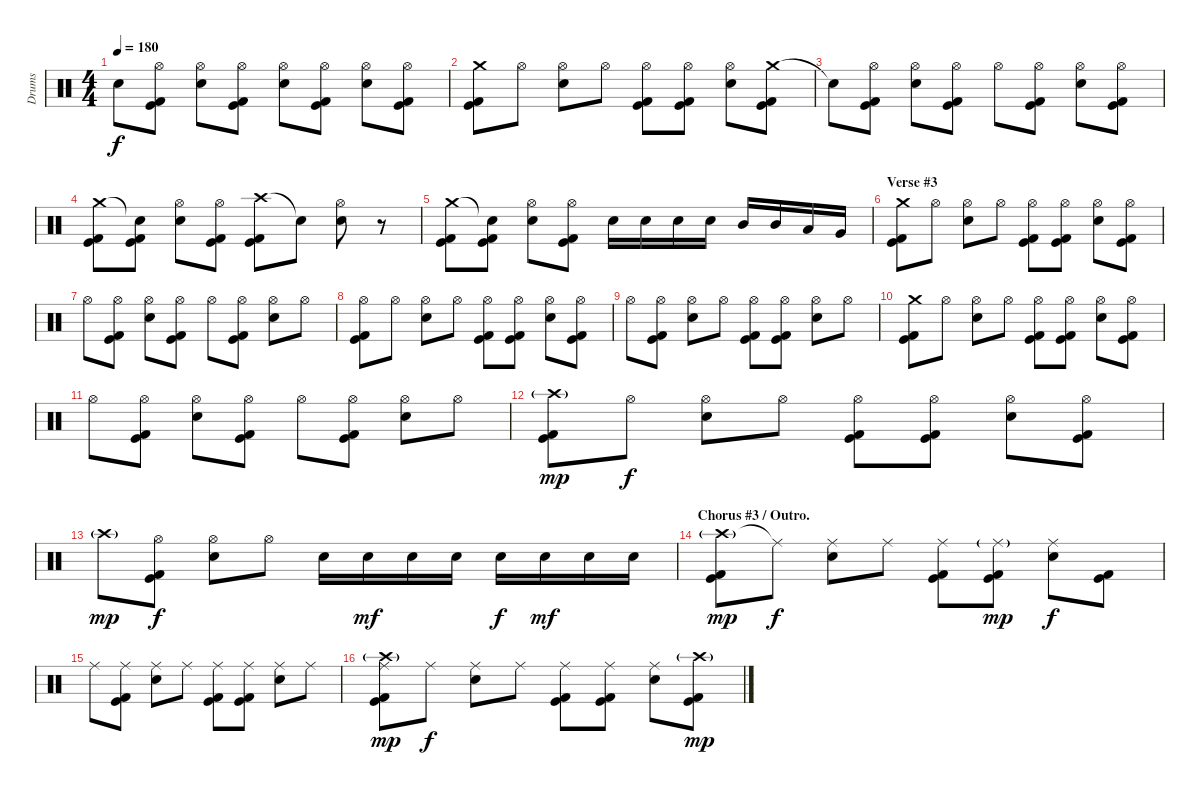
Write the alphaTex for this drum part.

\track ("Drums" "Drums") {instrument percussion}
\staff {score}
\articulation defaults
\ts (4 4)
\tempo 180
\clef neutral
\ks c "Snare (hit)"{t}.8{dy f}
("Hi-Hat (open)" "Kick (hit) 2" "Kick (hit)").8 ("Hi-Hat (open)" "Electric Snare (hit)").8 ("Hi-Hat (open)" "Kick (hit) 2" "Kick (hit)").8 ("Hi-Hat (open)" "Electric Snare (hit)").8 ("Hi-Hat (open)" "Kick (hit) 2" "Kick (hit)").8 ("Hi-Hat (open)" "Electric Snare (hit)").8 ("Hi-Hat (open)" "Kick (hit) 2" "Kick (hit)").8 |
("Crash medium (hit)" "Kick (hit) 2" "Kick (hit)").8 "Hi-Hat (open)".8 ("Hi-Hat (open)" "Electric Snare (hit)").8 "Hi-Hat (open)".8 ("Hi-Hat (open)" "Kick (hit) 2" "Kick (hit)").8 ("Hi-Hat (open)" "Kick (hit) 2" "Kick (hit)").8 ("Hi-Hat (open)" "Electric Snare (hit)").8 ("Crash medium (hit)" "Kick (hit) 2" "Kick (hit)").8 |
"Snare (hit)"{t}.8 ("Hi-Hat (open)" "Kick (hit) 2" "Kick (hit)").8 ("Hi-Hat (open)" "Electric Snare (hit)").8 ("Hi-Hat (open)" "Kick (hit) 2" "Kick (hit)").8 "Hi-Hat (open)".8 ("Hi-Hat (open)" "Kick (hit) 2" "Kick (hit)").8 ("Hi-Hat (open)" "Electric Snare (hit)").8 ("Hi-Hat (open)" "Kick (hit) 2" "Kick (hit)").8 |
("Crash medium (hit)" "Kick (hit) 2" "Kick (hit)").8 ("Snare (hit)"{t} "Kick (hit) 2" "Kick (hit)").8 ("Hi-Hat (open)" "Electric Snare (hit)").8 ("Hi-Hat (open)" "Kick (hit) 2" "Kick (hit)").8 ("Crash high (hit)" "Kick (hit) 2" "Kick (hit)").8 "Snare (hit)"{t}.8 ("Hi-Hat (open)" "Electric Snare (hit)").8 r.8 |
("Crash medium (hit)" "Kick (hit) 2" "Kick (hit)").8 ("Snare (hit)"{t} "Kick (hit) 2" "Kick (hit)").8 ("Hi-Hat (open)" "Electric Snare (hit)").8 ("Hi-Hat (open)" "Kick (hit) 2" "Kick (hit)").8 "Electric Snare (hit)".16 "Electric Snare (hit)".16 "Electric Snare (hit)".16 "Electric Snare (hit)".16 "Mid Tom (hit)".16 "Mid Tom (hit)".16 "Low Tom (hit)".16 "Very Low Tom (hit)".16 |
\section ("" "Verse #3")
("Crash medium (hit)" "Kick (hit) 2" "Kick (hit)").8 "Hi-Hat (open)".8 ("Hi-Hat (open)" "Electric Snare (hit)").8 "Hi-Hat (open)".8 ("Hi-Hat (open)" "Kick (hit) 2" "Kick (hit)").8 ("Hi-Hat (open)" "Kick (hit) 2" "Kick (hit)").8 ("Hi-Hat (open)" "Electric Snare (hit)").8 ("Hi-Hat (open)" "Kick (hit) 2" "Kick (hit)").8 |
"Hi-Hat (open)".8 ("Hi-Hat (open)" "Kick (hit) 2" "Kick (hit)").8 ("Hi-Hat (open)" "Electric Snare (hit)").8 ("Hi-Hat (open)" "Kick (hit) 2" "Kick (hit)").8 "Hi-Hat (open)".8 ("Hi-Hat (open)" "Kick (hit) 2" "Kick (hit)").8 ("Hi-Hat (open)" "Electric Snare (hit)").8 "Hi-Hat (open)".8 |
("Hi-Hat (open)" "Kick (hit) 2" "Kick (hit)").8 "Hi-Hat (open)".8 ("Hi-Hat (open)" "Electric Snare (hit)").8 "Hi-Hat (open)".8 ("Hi-Hat (open)" "Kick (hit) 2" "Kick (hit)").8 ("Hi-Hat (open)" "Kick (hit) 2" "Kick (hit)").8 ("Hi-Hat (open)" "Electric Snare (hit)").8 ("Hi-Hat (open)" "Kick (hit) 2" "Kick (hit)").8 |
"Hi-Hat (open)".8 ("Hi-Hat (open)" "Kick (hit) 2" "Kick (hit)").8 ("Hi-Hat (open)" "Electric Snare (hit)").8 "Hi-Hat (open)".8 ("Hi-Hat (open)" "Kick (hit) 2" "Kick (hit)").8 ("Hi-Hat (open)" "Kick (hit) 2" "Kick (hit)").8 ("Hi-Hat (open)" "Electric Snare (hit)").8 "Hi-Hat (open)".8 |
("Crash medium (hit)" "Kick (hit) 2" "Kick (hit)").8 "Hi-Hat (open)".8 ("Hi-Hat (open)" "Electric Snare (hit)").8 "Hi-Hat (open)".8 ("Hi-Hat (open)" "Kick (hit) 2" "Kick (hit)").8 ("Hi-Hat (open)" "Kick (hit) 2" "Kick (hit)").8 ("Hi-Hat (open)" "Electric Snare (hit)").8 ("Hi-Hat (open)" "Kick (hit) 2" "Kick (hit)").8 |
"Hi-Hat (open)".8 ("Hi-Hat (open)" "Kick (hit) 2" "Kick (hit)").8 ("Hi-Hat (open)" "Electric Snare (hit)").8 ("Hi-Hat (open)" "Kick (hit) 2" "Kick (hit)").8 "Hi-Hat (open)".8 ("Hi-Hat (open)" "Kick (hit) 2" "Kick (hit)").8 ("Hi-Hat (open)" "Electric Snare (hit)").8 "Hi-Hat (open)".8 |
("Crash high (hit)"{g} "Kick (hit) 2" "Kick (hit)").8{dy mp} "Hi-Hat (open)".8{dy f} ("Hi-Hat (open)" "Electric Snare (hit)").8 "Hi-Hat (open)".8 ("Hi-Hat (open)" "Kick (hit) 2" "Kick (hit)").8 ("Hi-Hat (open)" "Kick (hit) 2" "Kick (hit)").8 ("Hi-Hat (open)" "Electric Snare (hit)").8 ("Hi-Hat (open)" "Kick (hit) 2" "Kick (hit)").8 |
"Crash high (hit)"{g}.8{dy mp} ("Hi-Hat (open)" "Kick (hit) 2" "Kick (hit)").8{dy f} ("Hi-Hat (open)" "Electric Snare (hit)").8 "Hi-Hat (open)".8 "Electric Snare (hit)".16 "Electric Snare (hit)".16{dy mf} "Electric Snare (hit)".16 "Electric Snare (hit)".16 "Electric Snare (hit)".16{dy f} "Electric Snare (hit)".16{dy mf} "Electric Snare (hit)".16 "Electric Snare (hit)".16 |
\section ("" "Chorus #3 / Outro.")
("Crash high (hit)"{g} "Kick (hit) 2" "Kick (hit)").8{dy mp} "Ride (middle)"{t}.8{dy f} ("Ride (middle)" "Electric Snare (hit)").8 "Ride (middle)".8 ("Ride (middle)" "Kick (hit) 2" "Kick (hit)").8 ("Ride (middle)"{g} "Kick (hit) 2" "Kick (hit)").8{dy mp} ("Ride (middle)" "Electric Snare (hit)").8{dy f} ("Kick (hit) 2" "Kick (hit)").8 |
"Ride (middle)".8 ("Ride (middle)" "Kick (hit) 2" "Kick (hit)").8 ("Ride (middle)" "Electric Snare (hit)").8 "Ride (middle)".8 ("Ride (middle)" "Kick (hit) 2" "Kick (hit)").8 ("Ride (middle)" "Kick (hit) 2" "Kick (hit)").8 ("Ride (middle)" "Electric Snare (hit)").8 "Ride (middle)".8 |
("Ride (middle)" "Crash high (hit)"{g} "Kick (hit) 2" "Kick (hit)").8{dy mp} "Ride (middle)".8{dy f} ("Ride (middle)" "Electric Snare (hit)").8 "Ride (middle)".8 ("Ride (middle)" "Kick (hit) 2" "Kick (hit)").8 ("Ride (middle)" "Kick (hit) 2" "Kick (hit)").8 ("Ride (middle)" "Electric Snare (hit)").8 ("Crash high (hit)"{g} "Kick (hit) 2" "Kick (hit)").8{dy mp}
